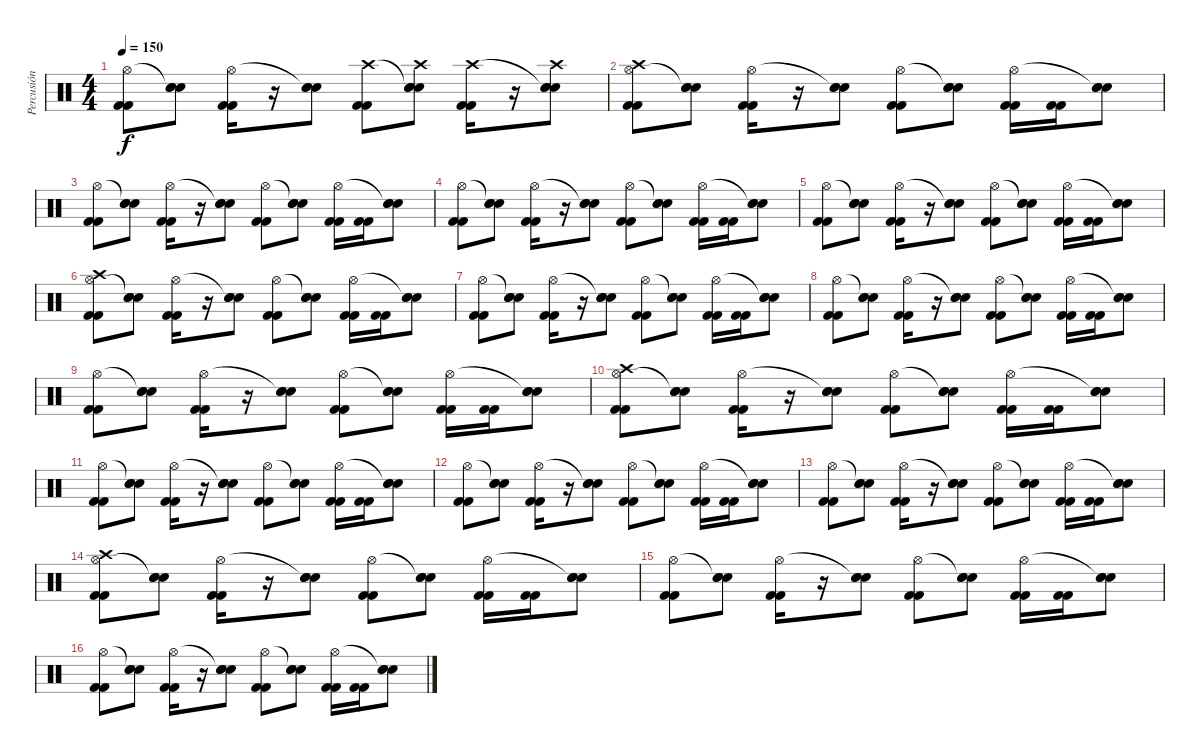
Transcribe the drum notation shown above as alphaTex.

\track ("Percusión" "Percusión") {instrument percussion}
\staff {score}
\articulation defaults
\ts (4 4)
\tempo 150
\clef neutral
\ks c
("Kick (hit) 2" "Kick (hit) 2" "Hi-Hat (open)").8{dy f} ("Snare (hit) 2" "Snare (hit) 2" "Snare (hit)"{t}).8 ("Kick (hit) 2" "Kick (hit) 2" "Hi-Hat (open)").16 r.16 ("Snare (hit) 2" "Snare (hit) 2" "Snare (hit)"{t}).8 ("Kick (hit) 2" "Kick (hit) 2" "Crash high (hit)").8 ("Snare (hit) 2" "Snare (hit) 2" "Snare (hit)"{t} "Crash high (hit)").8 ("Kick (hit) 2" "Kick (hit) 2" "Crash high (hit)").16 r.16 ("Snare (hit) 2" "Snare (hit) 2" "Snare (hit)"{t} "Crash high (hit)").8 |
("Kick (hit) 2" "Kick (hit) 2" "Hi-Hat (open)" "Crash high (hit)").8 ("Snare (hit) 2" "Snare (hit) 2" "Snare (hit)"{t}).8 ("Kick (hit) 2" "Kick (hit) 2" "Hi-Hat (open)").16 r.16 ("Snare (hit) 2" "Snare (hit) 2" "Snare (hit)"{t}).8 ("Kick (hit) 2" "Kick (hit) 2" "Hi-Hat (open)").8 ("Snare (hit) 2" "Snare (hit) 2" "Snare (hit)"{t}).8 ("Kick (hit) 2" "Kick (hit) 2" "Hi-Hat (open)").16 ("Kick (hit) 2" "Kick (hit) 2").16 ("Snare (hit) 2" "Snare (hit) 2" "Snare (hit)"{t}).8 |
("Kick (hit) 2" "Kick (hit) 2" "Hi-Hat (open)").8 ("Snare (hit) 2" "Snare (hit) 2" "Snare (hit)"{t}).8 ("Kick (hit) 2" "Kick (hit) 2" "Hi-Hat (open)").16 r.16 ("Snare (hit) 2" "Snare (hit) 2" "Snare (hit)"{t}).8 ("Kick (hit) 2" "Kick (hit) 2" "Hi-Hat (open)").8 ("Snare (hit) 2" "Snare (hit) 2" "Snare (hit)"{t}).8 ("Kick (hit) 2" "Kick (hit) 2" "Hi-Hat (open)").16 ("Kick (hit) 2" "Kick (hit) 2").16 ("Snare (hit) 2" "Snare (hit) 2" "Snare (hit)"{t}).8 |
("Kick (hit) 2" "Kick (hit) 2" "Hi-Hat (open)").8 ("Snare (hit) 2" "Snare (hit) 2" "Snare (hit)"{t}).8 ("Kick (hit) 2" "Kick (hit) 2" "Hi-Hat (open)").16 r.16 ("Snare (hit) 2" "Snare (hit) 2" "Snare (hit)"{t}).8 ("Kick (hit) 2" "Kick (hit) 2" "Hi-Hat (open)").8 ("Snare (hit) 2" "Snare (hit) 2" "Snare (hit)"{t}).8 ("Kick (hit) 2" "Kick (hit) 2" "Hi-Hat (open)").16 ("Kick (hit) 2" "Kick (hit) 2").16 ("Snare (hit) 2" "Snare (hit) 2" "Snare (hit)"{t}).8 |
("Kick (hit) 2" "Kick (hit) 2" "Hi-Hat (open)").8 ("Snare (hit) 2" "Snare (hit) 2" "Snare (hit)"{t}).8 ("Kick (hit) 2" "Kick (hit) 2" "Hi-Hat (open)").16 r.16 ("Snare (hit) 2" "Snare (hit) 2" "Snare (hit)"{t}).8 ("Kick (hit) 2" "Kick (hit) 2" "Hi-Hat (open)").8 ("Snare (hit) 2" "Snare (hit) 2" "Snare (hit)"{t}).8 ("Kick (hit) 2" "Kick (hit) 2" "Hi-Hat (open)").16 ("Kick (hit) 2" "Kick (hit) 2").16 ("Snare (hit) 2" "Snare (hit) 2" "Snare (hit)"{t}).8 |
("Kick (hit) 2" "Kick (hit) 2" "Hi-Hat (open)" "Crash high (hit)").8 ("Snare (hit) 2" "Snare (hit) 2" "Snare (hit)"{t}).8 ("Kick (hit) 2" "Kick (hit) 2" "Hi-Hat (open)").16 r.16 ("Snare (hit) 2" "Snare (hit) 2" "Snare (hit)"{t}).8 ("Kick (hit) 2" "Kick (hit) 2" "Hi-Hat (open)").8 ("Snare (hit) 2" "Snare (hit) 2" "Snare (hit)"{t}).8 ("Kick (hit) 2" "Kick (hit) 2" "Hi-Hat (open)").16 ("Kick (hit) 2" "Kick (hit) 2").16 ("Snare (hit) 2" "Snare (hit) 2" "Snare (hit)"{t}).8 |
("Kick (hit) 2" "Kick (hit) 2" "Hi-Hat (open)").8 ("Snare (hit) 2" "Snare (hit) 2" "Snare (hit)"{t}).8 ("Kick (hit) 2" "Kick (hit) 2" "Hi-Hat (open)").16 r.16 ("Snare (hit) 2" "Snare (hit) 2" "Snare (hit)"{t}).8 ("Kick (hit) 2" "Kick (hit) 2" "Hi-Hat (open)").8 ("Snare (hit) 2" "Snare (hit) 2" "Snare (hit)"{t}).8 ("Kick (hit) 2" "Kick (hit) 2" "Hi-Hat (open)").16 ("Kick (hit) 2" "Kick (hit) 2").16 ("Snare (hit) 2" "Snare (hit) 2" "Snare (hit)"{t}).8 |
("Kick (hit) 2" "Kick (hit) 2" "Hi-Hat (open)").8 ("Snare (hit) 2" "Snare (hit) 2" "Snare (hit)"{t}).8 ("Kick (hit) 2" "Kick (hit) 2" "Hi-Hat (open)").16 r.16 ("Snare (hit) 2" "Snare (hit) 2" "Snare (hit)"{t}).8 ("Kick (hit) 2" "Kick (hit) 2" "Hi-Hat (open)").8 ("Snare (hit) 2" "Snare (hit) 2" "Snare (hit)"{t}).8 ("Kick (hit) 2" "Kick (hit) 2" "Hi-Hat (open)").16 ("Kick (hit) 2" "Kick (hit) 2").16 ("Snare (hit) 2" "Snare (hit) 2" "Snare (hit)"{t}).8 |
("Kick (hit) 2" "Kick (hit) 2" "Hi-Hat (open)").8 ("Snare (hit) 2" "Snare (hit) 2" "Snare (hit)"{t}).8 ("Kick (hit) 2" "Kick (hit) 2" "Hi-Hat (open)").16 r.16 ("Snare (hit) 2" "Snare (hit) 2" "Snare (hit)"{t}).8 ("Kick (hit) 2" "Kick (hit) 2" "Hi-Hat (open)").8 ("Snare (hit) 2" "Snare (hit) 2" "Snare (hit)"{t}).8 ("Kick (hit) 2" "Kick (hit) 2" "Hi-Hat (open)").16 ("Kick (hit) 2" "Kick (hit) 2").16 ("Snare (hit) 2" "Snare (hit) 2" "Snare (hit)"{t}).8 |
("Kick (hit) 2" "Kick (hit) 2" "Hi-Hat (open)" "Crash high (hit)").8 ("Snare (hit) 2" "Snare (hit) 2" "Snare (hit)"{t}).8 ("Kick (hit) 2" "Kick (hit) 2" "Hi-Hat (open)").16 r.16 ("Snare (hit) 2" "Snare (hit) 2" "Snare (hit)"{t}).8 ("Kick (hit) 2" "Kick (hit) 2" "Hi-Hat (open)").8 ("Snare (hit) 2" "Snare (hit) 2" "Snare (hit)"{t}).8 ("Kick (hit) 2" "Kick (hit) 2" "Hi-Hat (open)").16 ("Kick (hit) 2" "Kick (hit) 2").16 ("Snare (hit) 2" "Snare (hit) 2" "Snare (hit)"{t}).8 |
("Kick (hit) 2" "Kick (hit) 2" "Hi-Hat (open)").8 ("Snare (hit) 2" "Snare (hit) 2" "Snare (hit)"{t}).8 ("Kick (hit) 2" "Kick (hit) 2" "Hi-Hat (open)").16 r.16 ("Snare (hit) 2" "Snare (hit) 2" "Snare (hit)"{t}).8 ("Kick (hit) 2" "Kick (hit) 2" "Hi-Hat (open)").8 ("Snare (hit) 2" "Snare (hit) 2" "Snare (hit)"{t}).8 ("Kick (hit) 2" "Kick (hit) 2" "Hi-Hat (open)").16 ("Kick (hit) 2" "Kick (hit) 2").16 ("Snare (hit) 2" "Snare (hit) 2" "Snare (hit)"{t}).8 |
("Kick (hit) 2" "Kick (hit) 2" "Hi-Hat (open)").8 ("Snare (hit) 2" "Snare (hit) 2" "Snare (hit)"{t}).8 ("Kick (hit) 2" "Kick (hit) 2" "Hi-Hat (open)").16 r.16 ("Snare (hit) 2" "Snare (hit) 2" "Snare (hit)"{t}).8 ("Kick (hit) 2" "Kick (hit) 2" "Hi-Hat (open)").8 ("Snare (hit) 2" "Snare (hit) 2" "Snare (hit)"{t}).8 ("Kick (hit) 2" "Kick (hit) 2" "Hi-Hat (open)").16 ("Kick (hit) 2" "Kick (hit) 2").16 ("Snare (hit) 2" "Snare (hit) 2" "Snare (hit)"{t}).8 |
("Kick (hit) 2" "Kick (hit) 2" "Hi-Hat (open)").8 ("Snare (hit) 2" "Snare (hit) 2" "Snare (hit)"{t}).8 ("Kick (hit) 2" "Kick (hit) 2" "Hi-Hat (open)").16 r.16 ("Snare (hit) 2" "Snare (hit) 2" "Snare (hit)"{t}).8 ("Kick (hit) 2" "Kick (hit) 2" "Hi-Hat (open)").8 ("Snare (hit) 2" "Snare (hit) 2" "Snare (hit)"{t}).8 ("Kick (hit) 2" "Kick (hit) 2" "Hi-Hat (open)").16 ("Kick (hit) 2" "Kick (hit) 2").16 ("Snare (hit) 2" "Snare (hit) 2" "Snare (hit)"{t}).8 |
("Kick (hit) 2" "Kick (hit) 2" "Hi-Hat (open)" "Crash high (hit)").8 ("Snare (hit) 2" "Snare (hit) 2" "Snare (hit)"{t}).8 ("Kick (hit) 2" "Kick (hit) 2" "Hi-Hat (open)").16 r.16 ("Snare (hit) 2" "Snare (hit) 2" "Snare (hit)"{t}).8 ("Kick (hit) 2" "Kick (hit) 2" "Hi-Hat (open)").8 ("Snare (hit) 2" "Snare (hit) 2" "Snare (hit)"{t}).8 ("Kick (hit) 2" "Kick (hit) 2" "Hi-Hat (open)").16 ("Kick (hit) 2" "Kick (hit) 2").16 ("Snare (hit) 2" "Snare (hit) 2" "Snare (hit)"{t}).8 |
("Kick (hit) 2" "Kick (hit) 2" "Hi-Hat (open)").8 ("Snare (hit) 2" "Snare (hit) 2" "Snare (hit)"{t}).8 ("Kick (hit) 2" "Kick (hit) 2" "Hi-Hat (open)").16 r.16 ("Snare (hit) 2" "Snare (hit) 2" "Snare (hit)"{t}).8 ("Kick (hit) 2" "Kick (hit) 2" "Hi-Hat (open)").8 ("Snare (hit) 2" "Snare (hit) 2" "Snare (hit)"{t}).8 ("Kick (hit) 2" "Kick (hit) 2" "Hi-Hat (open)").16 ("Kick (hit) 2" "Kick (hit) 2").16 ("Snare (hit) 2" "Snare (hit) 2" "Snare (hit)"{t}).8 |
("Kick (hit) 2" "Kick (hit) 2" "Hi-Hat (open)").8 ("Snare (hit) 2" "Snare (hit) 2" "Snare (hit)"{t}).8 ("Kick (hit) 2" "Kick (hit) 2" "Hi-Hat (open)").16 r.16 ("Snare (hit) 2" "Snare (hit) 2" "Snare (hit)"{t}).8 ("Kick (hit) 2" "Kick (hit) 2" "Hi-Hat (open)").8 ("Snare (hit) 2" "Snare (hit) 2" "Snare (hit)"{t}).8 ("Kick (hit) 2" "Kick (hit) 2" "Hi-Hat (open)").16 ("Kick (hit) 2" "Kick (hit) 2").16 ("Snare (hit) 2" "Snare (hit) 2" "Snare (hit)"{t}).8
